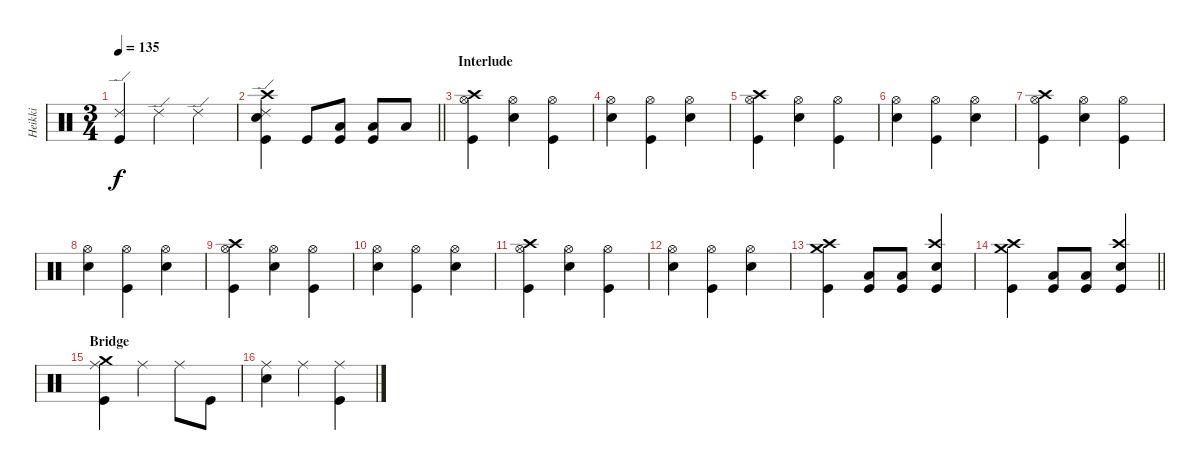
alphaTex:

\track ("Heikki" "Heikki") {instrument percussion}
\staff {score}
\articulation defaults
\ts (3 4)
\tempo 135
\clef neutral
\ks c
("Ride (edge) 2" "Kick (hit)").4{dy f} "Ride (edge) 2".4 "Ride (edge) 2".4 |
\barLineRight lightlight
("Ride (edge) 2" "Crash high (hit)" "Snare (hit) 2" "Kick (hit)").4 "Kick (hit)".8 ("Low Tom (hit)" "Kick (hit)").8 ("Low Tom (hit)" "Kick (hit)").8 "Low Floor Tom (hit)".8 |
\section ("" "Interlude")
("Hi-Hat (open)" "Crash high (hit)" "Kick (hit)").4 ("Hi-Hat (open)" "Snare (hit) 2").4 ("Hi-Hat (open)" "Kick (hit)").4 |
("Hi-Hat (open)" "Snare (hit) 2").4 ("Hi-Hat (open)" "Kick (hit)").4 ("Hi-Hat (open)" "Snare (hit) 2").4 |
("Hi-Hat (open)" "Crash high (hit)" "Kick (hit)").4 ("Hi-Hat (open)" "Snare (hit) 2").4 ("Hi-Hat (open)" "Kick (hit)").4 |
("Hi-Hat (open)" "Snare (hit) 2").4 ("Hi-Hat (open)" "Kick (hit)").4 ("Hi-Hat (open)" "Snare (hit) 2").4 |
("Hi-Hat (open)" "Crash high (hit)" "Kick (hit)").4 ("Hi-Hat (open)" "Snare (hit) 2").4 ("Hi-Hat (open)" "Kick (hit)").4 |
("Hi-Hat (open)" "Snare (hit) 2").4 ("Hi-Hat (open)" "Kick (hit)").4 ("Hi-Hat (open)" "Snare (hit) 2").4 |
("Hi-Hat (open)" "Crash high (hit)" "Kick (hit)").4 ("Hi-Hat (open)" "Snare (hit) 2").4 ("Hi-Hat (open)" "Kick (hit)").4 |
("Hi-Hat (open)" "Snare (hit) 2").4 ("Hi-Hat (open)" "Kick (hit)").4 ("Hi-Hat (open)" "Snare (hit) 2").4 |
("Hi-Hat (open)" "Crash high (hit)" "Kick (hit)").4 ("Hi-Hat (open)" "Snare (hit) 2").4 ("Hi-Hat (open)" "Kick (hit)").4 |
("Hi-Hat (open)" "Snare (hit) 2").4 ("Hi-Hat (open)" "Kick (hit)").4 ("Hi-Hat (open)" "Snare (hit) 2").4 |
("Crash high (hit)" "Crash medium (hit)" "Kick (hit)").4 ("Low Floor Tom (hit)" "Kick (hit)").8 ("Low Floor Tom (hit)" "Kick (hit)").8 ("Crash high (hit)" "Snare (hit) 2" "Kick (hit)").4 |
\barLineRight lightlight
("Crash high (hit)" "Crash medium (hit)" "Kick (hit)").4 ("Low Floor Tom (hit)" "Kick (hit)").8 ("Low Floor Tom (hit)" "Kick (hit)").8 ("Crash high (hit)" "Snare (hit) 2" "Kick (hit)").4 |
\section ("" "Bridge")
("Ride (middle)" "Crash medium (hit)" "Kick (hit)").4 "Ride (middle)".4 "Ride (middle)".8 "Kick (hit)".8 |
("Ride (middle)" "Snare (hit) 2").4 "Ride (middle)".4 ("Ride (middle)" "Kick (hit)").4
